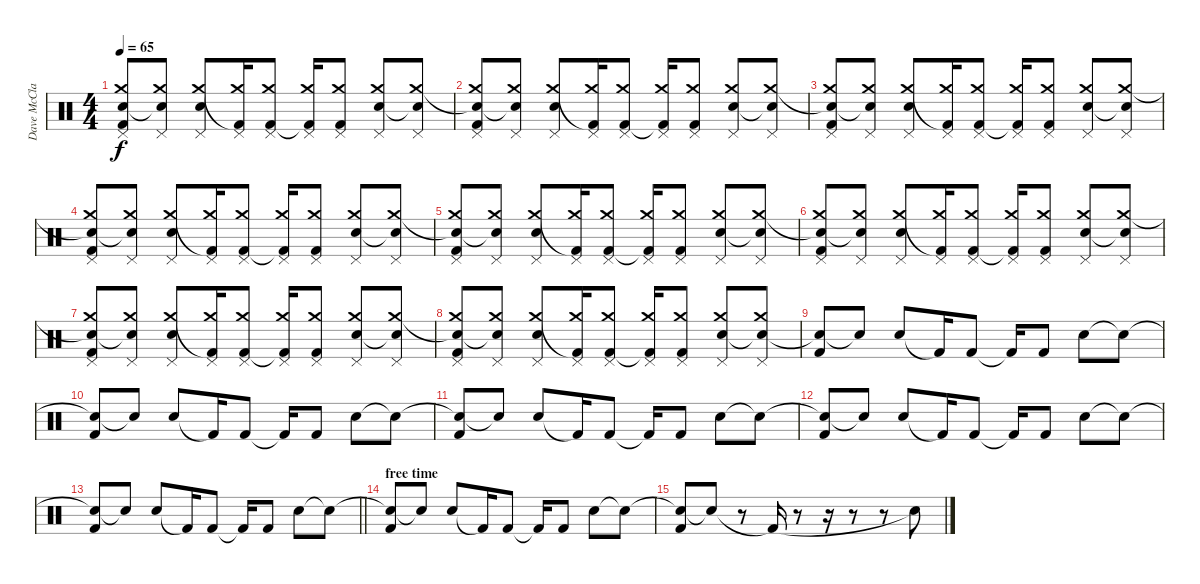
\track ("Dave McClain" "Dave McCla") {instrument percussion bank 8}
\staff {score}
\articulation defaults
\ts (4 4)
\tempo 65
\clef neutral
\ks c
("Pedal Hi-Hat (hit)" "Crash medium (hit)" "Snare (hit)"{t} "Kick (hit) 2").8{dy f} ("Pedal Hi-Hat (hit)" "Crash medium (hit)" "Snare (hit)"{t}).8 ("Electric Snare (hit)" "Pedal Hi-Hat (hit)" "Crash medium (hit)").8 ("Pedal Hi-Hat (hit)" "Crash medium (hit)" "Kick (hit) 2"{t}).16 ("Pedal Hi-Hat (hit)" "Crash medium (hit)" "Kick (hit) 2").8 ("Pedal Hi-Hat (hit)" "Crash medium (hit)" "Kick (hit) 2"{t}).16 ("Pedal Hi-Hat (hit)" "Crash medium (hit)" "Kick (hit) 2").8 ("Electric Snare (hit)" "Pedal Hi-Hat (hit)" "Crash medium (hit)").8 ("Snare (hit)"{t} "Pedal Hi-Hat (hit)" "Crash medium (hit)").8 |
("Pedal Hi-Hat (hit)" "Crash medium (hit)" "Snare (hit)"{t} "Kick (hit) 2").8 ("Pedal Hi-Hat (hit)" "Crash medium (hit)" "Snare (hit)"{t}).8 ("Electric Snare (hit)" "Pedal Hi-Hat (hit)" "Crash medium (hit)").8 ("Pedal Hi-Hat (hit)" "Crash medium (hit)" "Kick (hit) 2"{t}).16 ("Pedal Hi-Hat (hit)" "Crash medium (hit)" "Kick (hit) 2").8 ("Pedal Hi-Hat (hit)" "Crash medium (hit)" "Kick (hit) 2"{t}).16 ("Pedal Hi-Hat (hit)" "Crash medium (hit)" "Kick (hit) 2").8 ("Electric Snare (hit)" "Pedal Hi-Hat (hit)" "Crash medium (hit)").8 ("Snare (hit)"{t} "Pedal Hi-Hat (hit)" "Crash medium (hit)").8 |
("Pedal Hi-Hat (hit)" "Crash medium (hit)" "Snare (hit)"{t} "Kick (hit) 2").8 ("Pedal Hi-Hat (hit)" "Crash medium (hit)" "Snare (hit)"{t}).8 ("Electric Snare (hit)" "Pedal Hi-Hat (hit)" "Crash medium (hit)").8 ("Pedal Hi-Hat (hit)" "Crash medium (hit)" "Kick (hit) 2"{t}).16 ("Pedal Hi-Hat (hit)" "Crash medium (hit)" "Kick (hit) 2").8 ("Pedal Hi-Hat (hit)" "Crash medium (hit)" "Kick (hit) 2"{t}).16 ("Pedal Hi-Hat (hit)" "Crash medium (hit)" "Kick (hit) 2").8 ("Electric Snare (hit)" "Pedal Hi-Hat (hit)" "Crash medium (hit)").8 ("Snare (hit)"{t} "Pedal Hi-Hat (hit)" "Crash medium (hit)").8 |
("Pedal Hi-Hat (hit)" "Crash medium (hit)" "Snare (hit)"{t} "Kick (hit) 2").8 ("Pedal Hi-Hat (hit)" "Crash medium (hit)" "Snare (hit)"{t}).8 ("Electric Snare (hit)" "Pedal Hi-Hat (hit)" "Crash medium (hit)").8 ("Pedal Hi-Hat (hit)" "Crash medium (hit)" "Kick (hit) 2"{t}).16 ("Pedal Hi-Hat (hit)" "Crash medium (hit)" "Kick (hit) 2").8 ("Pedal Hi-Hat (hit)" "Crash medium (hit)" "Kick (hit) 2"{t}).16 ("Pedal Hi-Hat (hit)" "Crash medium (hit)" "Kick (hit) 2").8 ("Electric Snare (hit)" "Pedal Hi-Hat (hit)" "Crash medium (hit)").8 ("Snare (hit)"{t} "Pedal Hi-Hat (hit)" "Crash medium (hit)").8 |
("Pedal Hi-Hat (hit)" "Crash medium (hit)" "Snare (hit)"{t} "Kick (hit) 2").8 ("Pedal Hi-Hat (hit)" "Crash medium (hit)" "Snare (hit)"{t}).8 ("Electric Snare (hit)" "Pedal Hi-Hat (hit)" "Crash medium (hit)").8 ("Pedal Hi-Hat (hit)" "Crash medium (hit)" "Kick (hit) 2"{t}).16 ("Pedal Hi-Hat (hit)" "Crash medium (hit)" "Kick (hit) 2").8 ("Pedal Hi-Hat (hit)" "Crash medium (hit)" "Kick (hit) 2"{t}).16 ("Pedal Hi-Hat (hit)" "Crash medium (hit)" "Kick (hit) 2").8 ("Electric Snare (hit)" "Pedal Hi-Hat (hit)" "Crash medium (hit)").8 ("Snare (hit)"{t} "Pedal Hi-Hat (hit)" "Crash medium (hit)").8 |
("Pedal Hi-Hat (hit)" "Crash medium (hit)" "Snare (hit)"{t} "Kick (hit) 2").8 ("Pedal Hi-Hat (hit)" "Crash medium (hit)" "Snare (hit)"{t}).8 ("Electric Snare (hit)" "Pedal Hi-Hat (hit)" "Crash medium (hit)").8 ("Pedal Hi-Hat (hit)" "Crash medium (hit)" "Kick (hit) 2"{t}).16 ("Pedal Hi-Hat (hit)" "Crash medium (hit)" "Kick (hit) 2").8 ("Pedal Hi-Hat (hit)" "Crash medium (hit)" "Kick (hit) 2"{t}).16 ("Pedal Hi-Hat (hit)" "Crash medium (hit)" "Kick (hit) 2").8 ("Electric Snare (hit)" "Pedal Hi-Hat (hit)" "Crash medium (hit)").8 ("Snare (hit)"{t} "Pedal Hi-Hat (hit)" "Crash medium (hit)").8 |
("Pedal Hi-Hat (hit)" "Crash medium (hit)" "Snare (hit)"{t} "Kick (hit) 2").8 ("Pedal Hi-Hat (hit)" "Crash medium (hit)" "Snare (hit)"{t}).8 ("Electric Snare (hit)" "Pedal Hi-Hat (hit)" "Crash medium (hit)").8 ("Pedal Hi-Hat (hit)" "Crash medium (hit)" "Kick (hit) 2"{t}).16 ("Pedal Hi-Hat (hit)" "Crash medium (hit)" "Kick (hit) 2").8 ("Pedal Hi-Hat (hit)" "Crash medium (hit)" "Kick (hit) 2"{t}).16 ("Pedal Hi-Hat (hit)" "Crash medium (hit)" "Kick (hit) 2").8 ("Electric Snare (hit)" "Pedal Hi-Hat (hit)" "Crash medium (hit)").8 ("Snare (hit)"{t} "Pedal Hi-Hat (hit)" "Crash medium (hit)").8 |
("Pedal Hi-Hat (hit)" "Crash medium (hit)" "Snare (hit)"{t} "Kick (hit) 2").8 ("Pedal Hi-Hat (hit)" "Crash medium (hit)" "Snare (hit)"{t}).8 ("Electric Snare (hit)" "Pedal Hi-Hat (hit)" "Crash medium (hit)").8 ("Pedal Hi-Hat (hit)" "Crash medium (hit)" "Kick (hit) 2"{t}).16 ("Pedal Hi-Hat (hit)" "Crash medium (hit)" "Kick (hit) 2").8 ("Pedal Hi-Hat (hit)" "Crash medium (hit)" "Kick (hit) 2"{t}).16 ("Pedal Hi-Hat (hit)" "Crash medium (hit)" "Kick (hit) 2").8 ("Electric Snare (hit)" "Pedal Hi-Hat (hit)" "Crash medium (hit)").8 ("Snare (hit)"{t} "Pedal Hi-Hat (hit)" "Crash medium (hit)").8 |
("Snare (hit)"{t} "Kick (hit) 2").8 "Snare (hit)"{t}.8 "Electric Snare (hit)".8 "Kick (hit) 2"{t}.16 "Kick (hit) 2".8 "Kick (hit) 2"{t}.16 "Kick (hit) 2".8 "Electric Snare (hit)".8 "Snare (hit)"{t}.8 |
("Snare (hit)"{t} "Kick (hit) 2").8 "Snare (hit)"{t}.8 "Electric Snare (hit)".8 "Kick (hit) 2"{t}.16 "Kick (hit) 2".8 "Kick (hit) 2"{t}.16 "Kick (hit) 2".8 "Electric Snare (hit)".8 "Snare (hit)"{t}.8 |
("Snare (hit)"{t} "Kick (hit) 2").8 "Snare (hit)"{t}.8 "Electric Snare (hit)".8 "Kick (hit) 2"{t}.16 "Kick (hit) 2".8 "Kick (hit) 2"{t}.16 "Kick (hit) 2".8 "Electric Snare (hit)".8 "Snare (hit)"{t}.8 |
("Snare (hit)"{t} "Kick (hit) 2").8 "Snare (hit)"{t}.8 "Electric Snare (hit)".8 "Kick (hit) 2"{t}.16 "Kick (hit) 2".8 "Kick (hit) 2"{t}.16 "Kick (hit) 2".8 "Electric Snare (hit)".8 "Snare (hit)"{t}.8 |
\barLineRight lightlight
("Snare (hit)"{t} "Kick (hit) 2").8 "Snare (hit)"{t}.8 "Electric Snare (hit)".8 "Kick (hit) 2"{t}.16 "Kick (hit) 2".8 "Kick (hit) 2"{t}.16 "Kick (hit) 2".8 "Electric Snare (hit)".8 "Snare (hit)"{t}.8 |
\section ("" "free time")
("Snare (hit)"{t} "Kick (hit) 2").8 "Snare (hit)"{t}.8 "Electric Snare (hit)".8 "Kick (hit) 2"{t}.16 "Kick (hit) 2".8 "Kick (hit) 2"{t}.16 "Kick (hit) 2".8 "Electric Snare (hit)".8 "Snare (hit)"{t}.8 |
("Snare (hit)"{t} "Kick (hit) 2").8 "Snare (hit)"{t}.8 r.8 "Kick (hit) 2"{t}.16 r.8 r.16 r.8 r.8 "Snare (hit)"{t}.8
